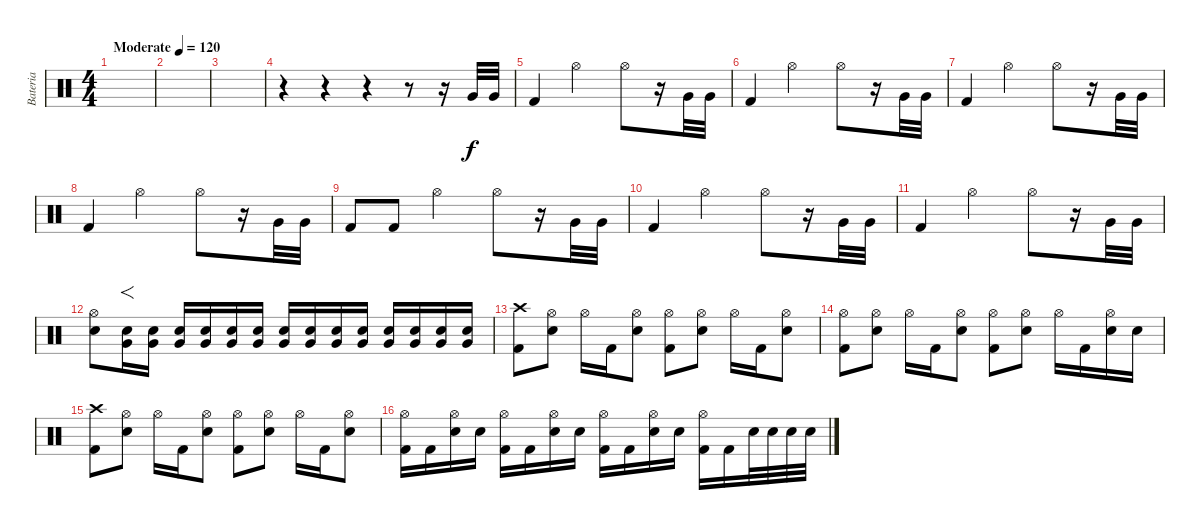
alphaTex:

\track ("Bateria" "Bateria") {instrument percussion}
\staff {score}
\articulation defaults
\ts (4 4)
\tempo (120 "Moderate")
\clef neutral
\ks c
|
|
|
r.4 r.4 r.4 r.8 r.16 "Very Low Tom (hit)".32 "Very Low Tom (hit)".32 |
"Kick (hit) 2".4 "Hi-Hat (open)".2 "Hi-Hat (open)".8 r.16 "Very Low Tom (hit)".32 "Very Low Tom (hit)".32 |
"Kick (hit) 2".4 "Hi-Hat (open)".2 "Hi-Hat (open)".8 r.16 "Very Low Tom (hit)".32 "Very Low Tom (hit)".32 |
"Kick (hit) 2".4 "Hi-Hat (open)".2 "Hi-Hat (open)".8 r.16 "Very Low Tom (hit)".32 "Very Low Tom (hit)".32 |
"Kick (hit) 2".4 "Hi-Hat (open)".2 "Hi-Hat (open)".8 r.16 "Very Low Tom (hit)".32 "Very Low Tom (hit)".32 |
"Kick (hit) 2".8 "Kick (hit) 2".8 "Hi-Hat (open)".2 "Hi-Hat (open)".8 r.16 "Very Low Tom (hit)".32 "Very Low Tom (hit)".32 |
"Kick (hit) 2".4 "Hi-Hat (open)".2 "Hi-Hat (open)".8 r.16 "Very Low Tom (hit)".32 "Very Low Tom (hit)".32 |
"Kick (hit) 2".4 "Hi-Hat (open)".2 "Hi-Hat (open)".8 r.16 "Very Low Tom (hit)".32 "Very Low Tom (hit)".32 |
("Hi-Hat (open)" "Electric Snare (hit)").8 ("Electric Snare (hit)" "Very Low Tom (hit)").16{f} ("Electric Snare (hit)" "Very Low Tom (hit)").16 ("Electric Snare (hit)" "Very Low Tom (hit)").16 ("Electric Snare (hit)" "Very Low Tom (hit)").16 ("Electric Snare (hit)" "Very Low Tom (hit)").16 ("Electric Snare (hit)" "Very Low Tom (hit)").16 ("Electric Snare (hit)" "Very Low Tom (hit)").16 ("Electric Snare (hit)" "Very Low Tom (hit)").16 ("Electric Snare (hit)" "Very Low Tom (hit)").16 ("Electric Snare (hit)" "Very Low Tom (hit)").16 ("Electric Snare (hit)" "Very Low Tom (hit)").16 ("Electric Snare (hit)" "Very Low Tom (hit)").16 ("Electric Snare (hit)" "Very Low Tom (hit)").16 ("Electric Snare (hit)" "Very Low Tom (hit)").16 |
("Crash high (hit)" "Kick (hit) 2").8 ("Hi-Hat (open)" "Electric Snare (hit)").8 "Hi-Hat (open)".16 "Kick (hit) 2".16 ("Hi-Hat (open)" "Electric Snare (hit)").8 ("Hi-Hat (open)" "Kick (hit) 2").8 ("Hi-Hat (open)" "Electric Snare (hit)").8 "Hi-Hat (open)".16 "Kick (hit) 2".16 ("Hi-Hat (open)" "Electric Snare (hit)").8 |
("Hi-Hat (open)" "Kick (hit) 2").8 ("Hi-Hat (open)" "Electric Snare (hit)").8 "Hi-Hat (open)".16 "Kick (hit) 2".16 ("Hi-Hat (open)" "Electric Snare (hit)").8 ("Hi-Hat (open)" "Kick (hit) 2").8 ("Hi-Hat (open)" "Electric Snare (hit)").8 "Hi-Hat (open)".16 "Kick (hit) 2".16 ("Hi-Hat (open)" "Electric Snare (hit)").16 "Electric Snare (hit)".16 |
("Crash high (hit)" "Kick (hit) 2").8 ("Hi-Hat (open)" "Electric Snare (hit)").8 "Hi-Hat (open)".16 "Kick (hit) 2".16 ("Hi-Hat (open)" "Electric Snare (hit)").8 ("Hi-Hat (open)" "Kick (hit) 2").8 ("Hi-Hat (open)" "Electric Snare (hit)").8 "Hi-Hat (open)".16 "Kick (hit) 2".16 ("Hi-Hat (open)" "Electric Snare (hit)").8 |
("Hi-Hat (open)" "Kick (hit) 2").16 "Kick (hit) 2".16 ("Hi-Hat (open)" "Electric Snare (hit)").16 "Electric Snare (hit)".16 ("Hi-Hat (open)" "Kick (hit) 2").16 "Kick (hit) 2".16 ("Hi-Hat (open)" "Electric Snare (hit)").16 "Electric Snare (hit)".16 ("Hi-Hat (open)" "Kick (hit) 2").16 "Kick (hit) 2".16 ("Hi-Hat (open)" "Electric Snare (hit)").16 "Electric Snare (hit)".16 ("Hi-Hat (open)" "Kick (hit) 2").16 "Kick (hit) 2".16 "Electric Snare (hit)".32 "Electric Snare (hit)".32 "Electric Snare (hit)".32 "Electric Snare (hit)".32
